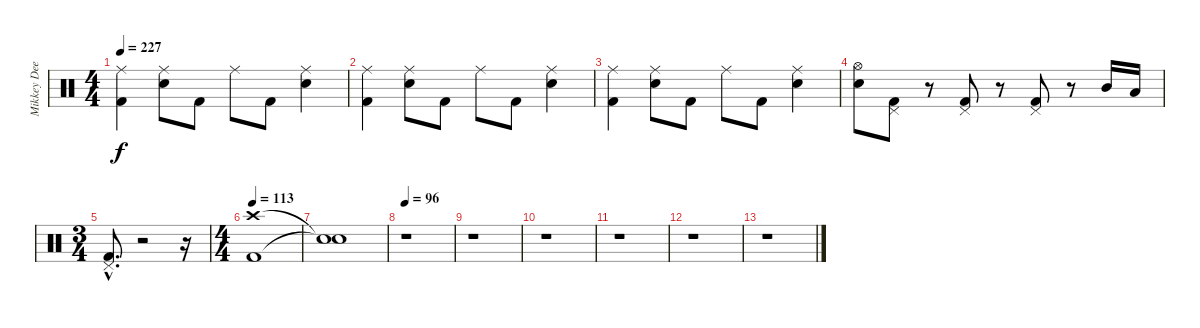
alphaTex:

\track ("Mikkey Dee" "Mikkey Dee") {instrument percussion}
\staff {score}
\articulation defaults
\ts (4 4)
\tempo 227
\clef neutral
\ks c
("Ride (middle)" "Kick (hit) 2").4{dy f} ("Ride (middle)" "Electric Snare (hit)").8 "Kick (hit) 2".8 "Ride (middle)".8 "Kick (hit) 2".8 ("Ride (middle)" "Electric Snare (hit)").4 |
("Kick (hit) 2" "Ride (middle)").4 ("Electric Snare (hit)" "Ride (middle)").8 "Kick (hit) 2".8 "Ride (middle)".8 "Kick (hit) 2".8 ("Electric Snare (hit)" "Ride (middle)").4 |
("Kick (hit) 2" "Ride (middle)").4 ("Electric Snare (hit)" "Ride (middle)").8 "Kick (hit) 2".8 "Ride (middle)".8 "Kick (hit) 2".8 ("Electric Snare (hit)" "Ride (middle)").4 |
("Electric Snare (hit)" "Hi-Hat (open)").8 ("Pedal Hi-Hat (hit)" "Kick (hit) 2").8 r.8 ("Pedal Hi-Hat (hit)" "Kick (hit) 2").8 r.8 ("Kick (hit) 2" "Pedal Hi-Hat (hit)").8 r.8 "Mid Tom (hit)".16 "Low Tom (hit)".16 |
\ts (3 4)
("Kick (hit) 2"{hac} "Pedal Hi-Hat (hit)"{hac}).8{d} r.2 r.16 |
\ts (4 4)
\tempo 113
("Kick (hit) 2" "Crash high (hit)").1 |
("Snare (hit)"{t} "Snare (hit)"{t}).1 |
\tempo 96
r.1 |
r.1 |
r.1 |
r.1 |
r.1 |
r.1
